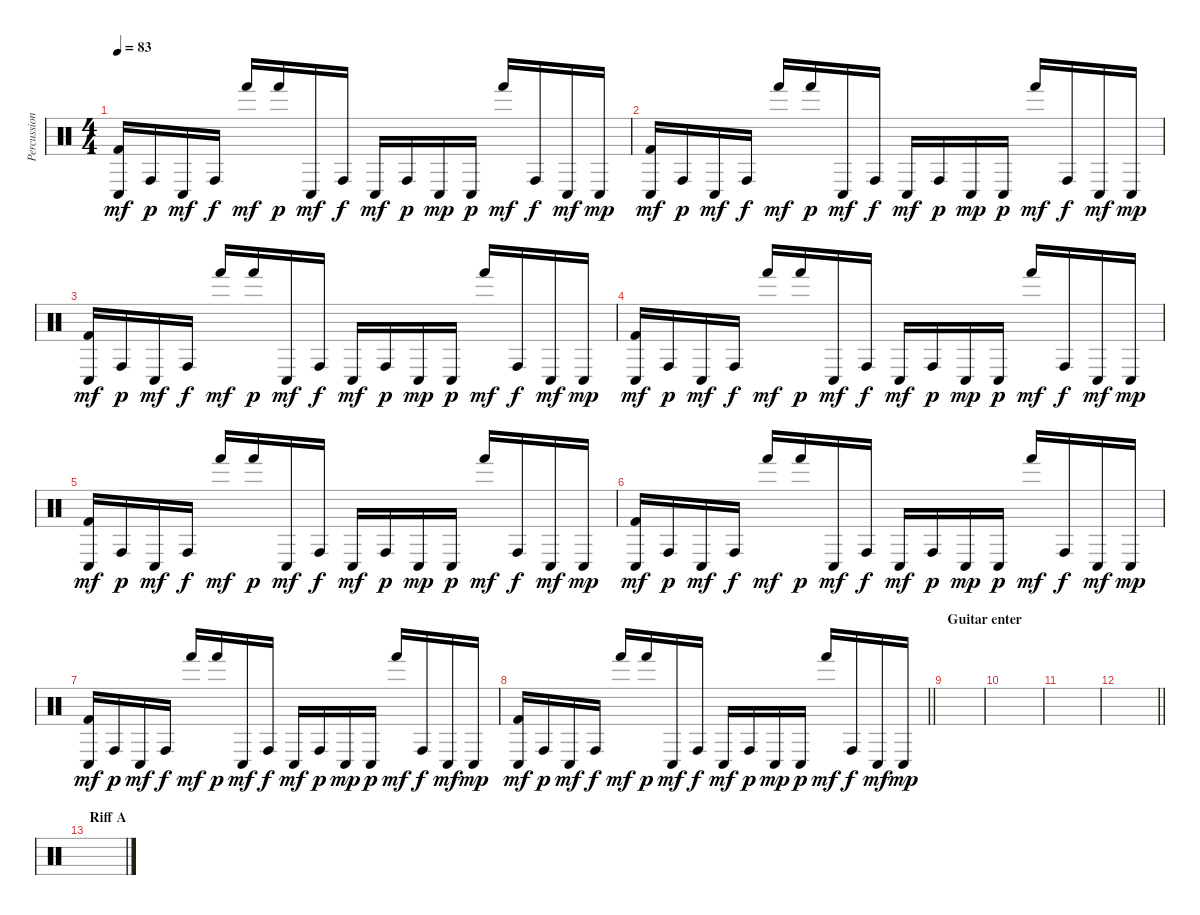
\track ("Percussions" "Percussion") {instrument percussion}
\staff {score}
\articulation defaults
\ts (4 4)
\tempo 83
\clef neutral
\ks c
("Conga low (hit)" "Kick (hit) 2").16{dy mf volume 8} "Conga high (hit)".16{dy p} "Conga low (hit)".16{dy mf} "Conga high (hit)".16{dy f} "Hand (hit)".16{dy mf} "Hand (hit)".16{dy p} "Conga low (hit)".16{dy mf} "Conga high (hit)".16{dy f} "Conga low (hit)".16{dy mf} "Conga high (hit)".16{dy p} "Conga low (hit)".16{dy mp} "Conga low (hit)".16{dy p} "Hand (hit)".16{dy mf} "Conga high (hit)".16{dy f} "Conga low (hit)".16{dy mf} "Conga low (hit)".16{dy mp} |
("Conga low (hit)" "Kick (hit) 2").16{dy mf volume 8} "Conga high (hit)".16{dy p} "Conga low (hit)".16{dy mf} "Conga high (hit)".16{dy f} "Hand (hit)".16{dy mf} "Hand (hit)".16{dy p} "Conga low (hit)".16{dy mf} "Conga high (hit)".16{dy f} "Conga low (hit)".16{dy mf} "Conga high (hit)".16{dy p} "Conga low (hit)".16{dy mp} "Conga low (hit)".16{dy p} "Hand (hit)".16{dy mf} "Conga high (hit)".16{dy f} "Conga low (hit)".16{dy mf} "Conga low (hit)".16{dy mp} |
("Conga low (hit)" "Kick (hit) 2").16{dy mf volume 8} "Conga high (hit)".16{dy p} "Conga low (hit)".16{dy mf} "Conga high (hit)".16{dy f} "Hand (hit)".16{dy mf} "Hand (hit)".16{dy p} "Conga low (hit)".16{dy mf} "Conga high (hit)".16{dy f} "Conga low (hit)".16{dy mf} "Conga high (hit)".16{dy p} "Conga low (hit)".16{dy mp} "Conga low (hit)".16{dy p} "Hand (hit)".16{dy mf} "Conga high (hit)".16{dy f} "Conga low (hit)".16{dy mf} "Conga low (hit)".16{dy mp} |
("Conga low (hit)" "Kick (hit) 2").16{dy mf volume 8} "Conga high (hit)".16{dy p} "Conga low (hit)".16{dy mf} "Conga high (hit)".16{dy f} "Hand (hit)".16{dy mf} "Hand (hit)".16{dy p} "Conga low (hit)".16{dy mf} "Conga high (hit)".16{dy f} "Conga low (hit)".16{dy mf} "Conga high (hit)".16{dy p} "Conga low (hit)".16{dy mp} "Conga low (hit)".16{dy p} "Hand (hit)".16{dy mf} "Conga high (hit)".16{dy f} "Conga low (hit)".16{dy mf} "Conga low (hit)".16{dy mp} |
("Conga low (hit)" "Kick (hit) 2").16{dy mf volume 8} "Conga high (hit)".16{dy p} "Conga low (hit)".16{dy mf} "Conga high (hit)".16{dy f} "Hand (hit)".16{dy mf} "Hand (hit)".16{dy p} "Conga low (hit)".16{dy mf} "Conga high (hit)".16{dy f} "Conga low (hit)".16{dy mf} "Conga high (hit)".16{dy p} "Conga low (hit)".16{dy mp} "Conga low (hit)".16{dy p} "Hand (hit)".16{dy mf} "Conga high (hit)".16{dy f} "Conga low (hit)".16{dy mf} "Conga low (hit)".16{dy mp} |
("Conga low (hit)" "Kick (hit) 2").16{dy mf volume 8} "Conga high (hit)".16{dy p} "Conga low (hit)".16{dy mf} "Conga high (hit)".16{dy f} "Hand (hit)".16{dy mf} "Hand (hit)".16{dy p} "Conga low (hit)".16{dy mf} "Conga high (hit)".16{dy f} "Conga low (hit)".16{dy mf} "Conga high (hit)".16{dy p} "Conga low (hit)".16{dy mp} "Conga low (hit)".16{dy p} "Hand (hit)".16{dy mf} "Conga high (hit)".16{dy f} "Conga low (hit)".16{dy mf} "Conga low (hit)".16{dy mp} |
("Conga low (hit)" "Kick (hit) 2").16{dy mf volume 8} "Conga high (hit)".16{dy p} "Conga low (hit)".16{dy mf} "Conga high (hit)".16{dy f} "Hand (hit)".16{dy mf} "Hand (hit)".16{dy p} "Conga low (hit)".16{dy mf} "Conga high (hit)".16{dy f} "Conga low (hit)".16{dy mf} "Conga high (hit)".16{dy p} "Conga low (hit)".16{dy mp} "Conga low (hit)".16{dy p} "Hand (hit)".16{dy mf} "Conga high (hit)".16{dy f} "Conga low (hit)".16{dy mf} "Conga low (hit)".16{dy mp} |
\barLineRight lightlight
("Conga low (hit)" "Kick (hit) 2").16{dy mf volume 8} "Conga high (hit)".16{dy p} "Conga low (hit)".16{dy mf} "Conga high (hit)".16{dy f} "Hand (hit)".16{dy mf} "Hand (hit)".16{dy p} "Conga low (hit)".16{dy mf} "Conga high (hit)".16{dy f} "Conga low (hit)".16{dy mf} "Conga high (hit)".16{dy p} "Conga low (hit)".16{dy mp} "Conga low (hit)".16{dy p} "Hand (hit)".16{dy mf} "Conga high (hit)".16{dy f} "Conga low (hit)".16{dy mf} "Conga low (hit)".16{dy mp} |
\section ("" "Guitar enter")
|
|
|
\barLineRight lightlight
|
\section ("" "Riff A")
